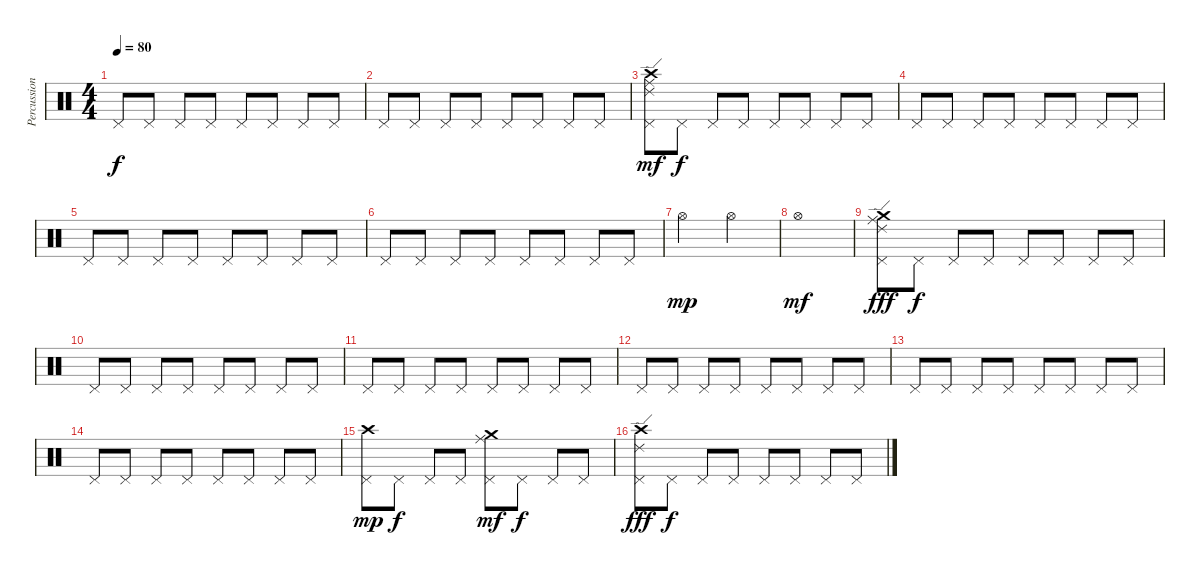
\track ("Percussion" "Percussion") {instrument percussion}
\staff {score}
\articulation defaults
\ts (4 4)
\tempo 80
\clef neutral
\ks c "Pedal Hi-Hat (hit)".8{dy f} "Pedal Hi-Hat (hit)".8 "Pedal Hi-Hat (hit)".8 "Pedal Hi-Hat (hit)".8 "Pedal Hi-Hat (hit)".8 "Pedal Hi-Hat (hit)".8 "Pedal Hi-Hat (hit)".8 "Pedal Hi-Hat (hit)".8
|
"Pedal Hi-Hat (hit)".8 "Pedal Hi-Hat (hit)".8 "Pedal Hi-Hat (hit)".8 "Pedal Hi-Hat (hit)".8 "Pedal Hi-Hat (hit)".8 "Pedal Hi-Hat (hit)".8 "Pedal Hi-Hat (hit)".8 "Pedal Hi-Hat (hit)".8 |
("Ride (edge) 2" "Ride (middle)" "Crash high (hit)" "Pedal Hi-Hat (hit)").8{dy mf} "Pedal Hi-Hat (hit)".8{dy f} "Pedal Hi-Hat (hit)".8 "Pedal Hi-Hat (hit)".8 "Pedal Hi-Hat (hit)".8 "Pedal Hi-Hat (hit)".8 "Pedal Hi-Hat (hit)".8 "Pedal Hi-Hat (hit)".8 |
"Pedal Hi-Hat (hit)".8 "Pedal Hi-Hat (hit)".8 "Pedal Hi-Hat (hit)".8 "Pedal Hi-Hat (hit)".8 "Pedal Hi-Hat (hit)".8 "Pedal Hi-Hat (hit)".8 "Pedal Hi-Hat (hit)".8 "Pedal Hi-Hat (hit)".8 |
"Pedal Hi-Hat (hit)".8 "Pedal Hi-Hat (hit)".8 "Pedal Hi-Hat (hit)".8 "Pedal Hi-Hat (hit)".8 "Pedal Hi-Hat (hit)".8 "Pedal Hi-Hat (hit)".8 "Pedal Hi-Hat (hit)".8 "Pedal Hi-Hat (hit)".8 |
"Pedal Hi-Hat (hit)".8 "Pedal Hi-Hat (hit)".8 "Pedal Hi-Hat (hit)".8 "Pedal Hi-Hat (hit)".8 "Pedal Hi-Hat (hit)".8 "Pedal Hi-Hat (hit)".8 "Pedal Hi-Hat (hit)".8 "Pedal Hi-Hat (hit)".8 |
"Hi-Hat (open)".2{dy mp} "Hi-Hat (open)".2 |
"Hi-Hat (open)".1{dy mf} |
("Crash medium (hit)" "Ride (middle)" "Ride (edge) 2" "Pedal Hi-Hat (hit)").8{dy fff} "Pedal Hi-Hat (hit)".8{dy f} "Pedal Hi-Hat (hit)".8 "Pedal Hi-Hat (hit)".8 "Pedal Hi-Hat (hit)".8 "Pedal Hi-Hat (hit)".8 "Pedal Hi-Hat (hit)".8 "Pedal Hi-Hat (hit)".8 |
"Pedal Hi-Hat (hit)".8 "Pedal Hi-Hat (hit)".8 "Pedal Hi-Hat (hit)".8 "Pedal Hi-Hat (hit)".8 "Pedal Hi-Hat (hit)".8 "Pedal Hi-Hat (hit)".8 "Pedal Hi-Hat (hit)".8 "Pedal Hi-Hat (hit)".8 |
"Pedal Hi-Hat (hit)".8 "Pedal Hi-Hat (hit)".8 "Pedal Hi-Hat (hit)".8 "Pedal Hi-Hat (hit)".8 "Pedal Hi-Hat (hit)".8 "Pedal Hi-Hat (hit)".8 "Pedal Hi-Hat (hit)".8 "Pedal Hi-Hat (hit)".8 |
"Pedal Hi-Hat (hit)".8 "Pedal Hi-Hat (hit)".8 "Pedal Hi-Hat (hit)".8 "Pedal Hi-Hat (hit)".8 "Pedal Hi-Hat (hit)".8 "Pedal Hi-Hat (hit)".8 "Pedal Hi-Hat (hit)".8 "Pedal Hi-Hat (hit)".8 |
"Pedal Hi-Hat (hit)".8 "Pedal Hi-Hat (hit)".8 "Pedal Hi-Hat (hit)".8 "Pedal Hi-Hat (hit)".8 "Pedal Hi-Hat (hit)".8 "Pedal Hi-Hat (hit)".8 "Pedal Hi-Hat (hit)".8 "Pedal Hi-Hat (hit)".8 |
"Pedal Hi-Hat (hit)".8 "Pedal Hi-Hat (hit)".8 "Pedal Hi-Hat (hit)".8 "Pedal Hi-Hat (hit)".8 "Pedal Hi-Hat (hit)".8 "Pedal Hi-Hat (hit)".8 "Pedal Hi-Hat (hit)".8 "Pedal Hi-Hat (hit)".8 |
("Crash high (hit)" "Pedal Hi-Hat (hit)").8{dy mp} "Pedal Hi-Hat (hit)".8{dy f} "Pedal Hi-Hat (hit)".8 "Pedal Hi-Hat (hit)".8 ("Ride (middle)" "Crash medium (hit)" "Pedal Hi-Hat (hit)").8{dy mf} "Pedal Hi-Hat (hit)".8{dy f} "Pedal Hi-Hat (hit)".8 "Pedal Hi-Hat (hit)".8 |
("Crash high (hit)" "Ride (edge) 2" "Pedal Hi-Hat (hit)").8{dy fff} "Pedal Hi-Hat (hit)".8{dy f} "Pedal Hi-Hat (hit)".8 "Pedal Hi-Hat (hit)".8 "Pedal Hi-Hat (hit)".8 "Pedal Hi-Hat (hit)".8 "Pedal Hi-Hat (hit)".8 "Pedal Hi-Hat (hit)".8
